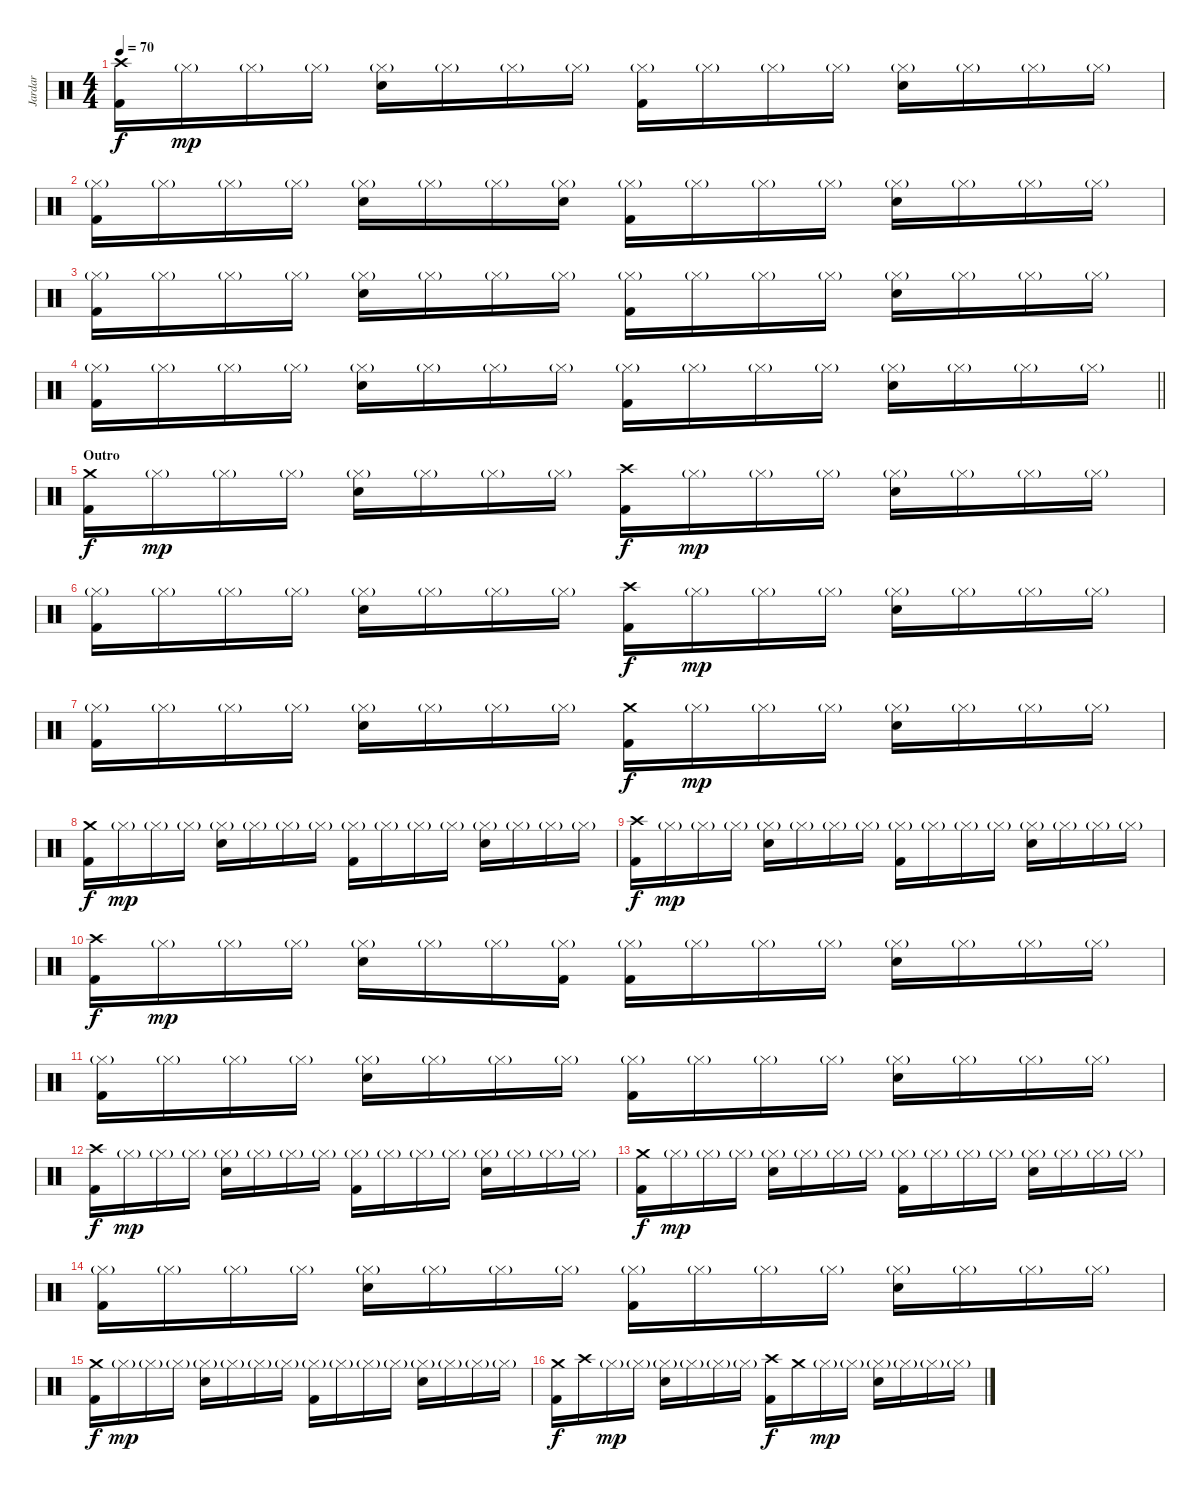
\track ("Jardar" "Jardar") {instrument percussion}
\staff {score}
\articulation defaults
\ts (4 4)
\tempo 70
\clef neutral
\ks c
("Crash high (hit)" "Kick (hit) 2").16{dy f} "Hi-Hat (closed)"{g}.16{dy mp} "Hi-Hat (closed)"{g}.16 "Hi-Hat (closed)"{g}.16 ("Hi-Hat (closed)"{g} "Electric Snare (hit)").16 "Hi-Hat (closed)"{g}.16 "Hi-Hat (closed)"{g}.16 "Hi-Hat (closed)"{g}.16 ("Hi-Hat (closed)"{g} "Kick (hit) 2").16 "Hi-Hat (closed)"{g}.16 "Hi-Hat (closed)"{g}.16 "Hi-Hat (closed)"{g}.16 ("Hi-Hat (closed)"{g} "Electric Snare (hit)").16 "Hi-Hat (closed)"{g}.16 "Hi-Hat (closed)"{g}.16 "Hi-Hat (closed)"{g}.16 |
("Hi-Hat (closed)"{g} "Kick (hit) 2").16 "Hi-Hat (closed)"{g}.16 "Hi-Hat (closed)"{g}.16 "Hi-Hat (closed)"{g}.16 ("Hi-Hat (closed)"{g} "Electric Snare (hit)").16 "Hi-Hat (closed)"{g}.16 "Hi-Hat (closed)"{g}.16 ("Hi-Hat (closed)"{g} "Electric Snare (hit)").16 ("Hi-Hat (closed)"{g} "Kick (hit) 2").16 "Hi-Hat (closed)"{g}.16 "Hi-Hat (closed)"{g}.16 "Hi-Hat (closed)"{g}.16 ("Hi-Hat (closed)"{g} "Electric Snare (hit)").16 "Hi-Hat (closed)"{g}.16 "Hi-Hat (closed)"{g}.16 "Hi-Hat (closed)"{g}.16 |
("Hi-Hat (closed)"{g} "Kick (hit) 2").16 "Hi-Hat (closed)"{g}.16 "Hi-Hat (closed)"{g}.16 "Hi-Hat (closed)"{g}.16 ("Hi-Hat (closed)"{g} "Electric Snare (hit)").16 "Hi-Hat (closed)"{g}.16 "Hi-Hat (closed)"{g}.16 "Hi-Hat (closed)"{g}.16 ("Hi-Hat (closed)"{g} "Kick (hit) 2").16 "Hi-Hat (closed)"{g}.16 "Hi-Hat (closed)"{g}.16 "Hi-Hat (closed)"{g}.16 ("Hi-Hat (closed)"{g} "Electric Snare (hit)").16 "Hi-Hat (closed)"{g}.16 "Hi-Hat (closed)"{g}.16 "Hi-Hat (closed)"{g}.16 |
\barLineRight lightlight
("Hi-Hat (closed)"{g} "Kick (hit) 2").16 "Hi-Hat (closed)"{g}.16 "Hi-Hat (closed)"{g}.16 "Hi-Hat (closed)"{g}.16 ("Hi-Hat (closed)"{g} "Electric Snare (hit)").16 "Hi-Hat (closed)"{g}.16 "Hi-Hat (closed)"{g}.16 "Hi-Hat (closed)"{g}.16 ("Hi-Hat (closed)"{g} "Kick (hit) 2").16 "Hi-Hat (closed)"{g}.16 "Hi-Hat (closed)"{g}.16 "Hi-Hat (closed)"{g}.16 ("Hi-Hat (closed)"{g} "Electric Snare (hit)").16 "Hi-Hat (closed)"{g}.16 "Hi-Hat (closed)"{g}.16 "Hi-Hat (closed)"{g}.16 |
\section ("" "Outro")
("Crash medium (hit)" "Kick (hit) 2").16{dy f} "Hi-Hat (closed)"{g}.16{dy mp} "Hi-Hat (closed)"{g}.16 "Hi-Hat (closed)"{g}.16 ("Hi-Hat (closed)"{g} "Electric Snare (hit)").16 "Hi-Hat (closed)"{g}.16 "Hi-Hat (closed)"{g}.16 "Hi-Hat (closed)"{g}.16 ("Crash high (hit)" "Kick (hit) 2").16{dy f} "Hi-Hat (closed)"{g}.16{dy mp} "Hi-Hat (closed)"{g}.16 "Hi-Hat (closed)"{g}.16 ("Hi-Hat (closed)"{g} "Electric Snare (hit)").16 "Hi-Hat (closed)"{g}.16 "Hi-Hat (closed)"{g}.16 "Hi-Hat (closed)"{g}.16 |
("Hi-Hat (closed)"{g} "Kick (hit) 2").16 "Hi-Hat (closed)"{g}.16 "Hi-Hat (closed)"{g}.16 "Hi-Hat (closed)"{g}.16 ("Hi-Hat (closed)"{g} "Electric Snare (hit)").16 "Hi-Hat (closed)"{g}.16 "Hi-Hat (closed)"{g}.16 "Hi-Hat (closed)"{g}.16 ("Crash high (hit)" "Kick (hit) 2").16{dy f} "Hi-Hat (closed)"{g}.16{dy mp} "Hi-Hat (closed)"{g}.16 "Hi-Hat (closed)"{g}.16 ("Hi-Hat (closed)"{g} "Electric Snare (hit)").16 "Hi-Hat (closed)"{g}.16 "Hi-Hat (closed)"{g}.16 "Hi-Hat (closed)"{g}.16 |
("Hi-Hat (closed)"{g} "Kick (hit) 2").16 "Hi-Hat (closed)"{g}.16 "Hi-Hat (closed)"{g}.16 "Hi-Hat (closed)"{g}.16 ("Hi-Hat (closed)"{g} "Electric Snare (hit)").16 "Hi-Hat (closed)"{g}.16 "Hi-Hat (closed)"{g}.16 "Hi-Hat (closed)"{g}.16 ("Crash medium (hit)" "Kick (hit) 2").16{dy f} "Hi-Hat (closed)"{g}.16{dy mp} "Hi-Hat (closed)"{g}.16 "Hi-Hat (closed)"{g}.16 ("Hi-Hat (closed)"{g} "Electric Snare (hit)").16 "Hi-Hat (closed)"{g}.16 "Hi-Hat (closed)"{g}.16 "Hi-Hat (closed)"{g}.16 |
("Crash medium (hit)" "Kick (hit) 2").16{dy f} "Hi-Hat (closed)"{g}.16{dy mp} "Hi-Hat (closed)"{g}.16 "Hi-Hat (closed)"{g}.16 ("Hi-Hat (closed)"{g} "Electric Snare (hit)").16 "Hi-Hat (closed)"{g}.16 "Hi-Hat (closed)"{g}.16 "Hi-Hat (closed)"{g}.16 ("Hi-Hat (closed)"{g} "Kick (hit) 2").16 "Hi-Hat (closed)"{g}.16 "Hi-Hat (closed)"{g}.16 "Hi-Hat (closed)"{g}.16 ("Hi-Hat (closed)"{g} "Electric Snare (hit)").16 "Hi-Hat (closed)"{g}.16 "Hi-Hat (closed)"{g}.16 "Hi-Hat (closed)"{g}.16 |
("Crash high (hit)" "Kick (hit) 2").16{dy f} "Hi-Hat (closed)"{g}.16{dy mp} "Hi-Hat (closed)"{g}.16 "Hi-Hat (closed)"{g}.16 ("Hi-Hat (closed)"{g} "Electric Snare (hit)").16 "Hi-Hat (closed)"{g}.16 "Hi-Hat (closed)"{g}.16 "Hi-Hat (closed)"{g}.16 ("Hi-Hat (closed)"{g} "Kick (hit) 2").16 "Hi-Hat (closed)"{g}.16 "Hi-Hat (closed)"{g}.16 "Hi-Hat (closed)"{g}.16 ("Hi-Hat (closed)"{g} "Electric Snare (hit)").16 "Hi-Hat (closed)"{g}.16 "Hi-Hat (closed)"{g}.16 "Hi-Hat (closed)"{g}.16 |
("Crash high (hit)" "Kick (hit) 2").16{dy f} "Hi-Hat (closed)"{g}.16{dy mp} "Hi-Hat (closed)"{g}.16 "Hi-Hat (closed)"{g}.16 ("Hi-Hat (closed)"{g} "Electric Snare (hit)").16 "Hi-Hat (closed)"{g}.16 "Hi-Hat (closed)"{g}.16 ("Hi-Hat (closed)"{g} "Kick (hit) 2").16 ("Hi-Hat (closed)"{g} "Kick (hit) 2").16 "Hi-Hat (closed)"{g}.16 "Hi-Hat (closed)"{g}.16 "Hi-Hat (closed)"{g}.16 ("Hi-Hat (closed)"{g} "Electric Snare (hit)").16 "Hi-Hat (closed)"{g}.16 "Hi-Hat (closed)"{g}.16 "Hi-Hat (closed)"{g}.16 |
("Hi-Hat (closed)"{g} "Kick (hit) 2").16 "Hi-Hat (closed)"{g}.16 "Hi-Hat (closed)"{g}.16 "Hi-Hat (closed)"{g}.16 ("Hi-Hat (closed)"{g} "Electric Snare (hit)").16 "Hi-Hat (closed)"{g}.16 "Hi-Hat (closed)"{g}.16 "Hi-Hat (closed)"{g}.16 ("Hi-Hat (closed)"{g} "Kick (hit) 2").16 "Hi-Hat (closed)"{g}.16 "Hi-Hat (closed)"{g}.16 "Hi-Hat (closed)"{g}.16 ("Hi-Hat (closed)"{g} "Electric Snare (hit)").16 "Hi-Hat (closed)"{g}.16 "Hi-Hat (closed)"{g}.16 "Hi-Hat (closed)"{g}.16 |
("Crash high (hit)" "Kick (hit) 2").16{dy f} "Hi-Hat (closed)"{g}.16{dy mp} "Hi-Hat (closed)"{g}.16 "Hi-Hat (closed)"{g}.16 ("Hi-Hat (closed)"{g} "Electric Snare (hit)").16 "Hi-Hat (closed)"{g}.16 "Hi-Hat (closed)"{g}.16 "Hi-Hat (closed)"{g}.16 ("Hi-Hat (closed)"{g} "Kick (hit) 2").16 "Hi-Hat (closed)"{g}.16 "Hi-Hat (closed)"{g}.16 "Hi-Hat (closed)"{g}.16 ("Hi-Hat (closed)"{g} "Electric Snare (hit)").16 "Hi-Hat (closed)"{g}.16 "Hi-Hat (closed)"{g}.16 "Hi-Hat (closed)"{g}.16 |
("Crash medium (hit)" "Kick (hit) 2").16{dy f} "Hi-Hat (closed)"{g}.16{dy mp} "Hi-Hat (closed)"{g}.16 "Hi-Hat (closed)"{g}.16 ("Hi-Hat (closed)"{g} "Electric Snare (hit)").16 "Hi-Hat (closed)"{g}.16 "Hi-Hat (closed)"{g}.16 "Hi-Hat (closed)"{g}.16 ("Hi-Hat (closed)"{g} "Kick (hit) 2").16 "Hi-Hat (closed)"{g}.16 "Hi-Hat (closed)"{g}.16 "Hi-Hat (closed)"{g}.16 ("Hi-Hat (closed)"{g} "Electric Snare (hit)").16 "Hi-Hat (closed)"{g}.16 "Hi-Hat (closed)"{g}.16 "Hi-Hat (closed)"{g}.16 |
("Hi-Hat (closed)"{g} "Kick (hit) 2").16 "Hi-Hat (closed)"{g}.16 "Hi-Hat (closed)"{g}.16 "Hi-Hat (closed)"{g}.16 ("Hi-Hat (closed)"{g} "Electric Snare (hit)").16 "Hi-Hat (closed)"{g}.16 "Hi-Hat (closed)"{g}.16 "Hi-Hat (closed)"{g}.16 ("Hi-Hat (closed)"{g} "Kick (hit) 2").16 "Hi-Hat (closed)"{g}.16 "Hi-Hat (closed)"{g}.16 "Hi-Hat (closed)"{g}.16 ("Hi-Hat (closed)"{g} "Electric Snare (hit)").16 "Hi-Hat (closed)"{g}.16 "Hi-Hat (closed)"{g}.16 "Hi-Hat (closed)"{g}.16 |
("Crash medium (hit)" "Kick (hit) 2").16{dy f} "Hi-Hat (closed)"{g}.16{dy mp} "Hi-Hat (closed)"{g}.16 "Hi-Hat (closed)"{g}.16 ("Hi-Hat (closed)"{g} "Electric Snare (hit)").16 "Hi-Hat (closed)"{g}.16 "Hi-Hat (closed)"{g}.16 "Hi-Hat (closed)"{g}.16 ("Hi-Hat (closed)"{g} "Kick (hit) 2").16 "Hi-Hat (closed)"{g}.16 "Hi-Hat (closed)"{g}.16 "Hi-Hat (closed)"{g}.16 ("Hi-Hat (closed)"{g} "Electric Snare (hit)").16 "Hi-Hat (closed)"{g}.16 "Hi-Hat (closed)"{g}.16 "Hi-Hat (closed)"{g}.16 |
("Crash medium (hit)" "Kick (hit) 2").16{dy f} "Crash high (hit)".16 "Hi-Hat (closed)"{g}.16{dy mp} "Hi-Hat (closed)"{g}.16 ("Hi-Hat (closed)"{g} "Electric Snare (hit)").16 "Hi-Hat (closed)"{g}.16 "Hi-Hat (closed)"{g}.16 "Hi-Hat (closed)"{g}.16 ("Crash high (hit)" "Kick (hit) 2").16{dy f} "Crash medium (hit)".16 "Hi-Hat (closed)"{g}.16{dy mp} "Hi-Hat (closed)"{g}.16 ("Hi-Hat (closed)"{g} "Electric Snare (hit)").16 "Hi-Hat (closed)"{g}.16 "Hi-Hat (closed)"{g}.16 "Hi-Hat (closed)"{g}.16
